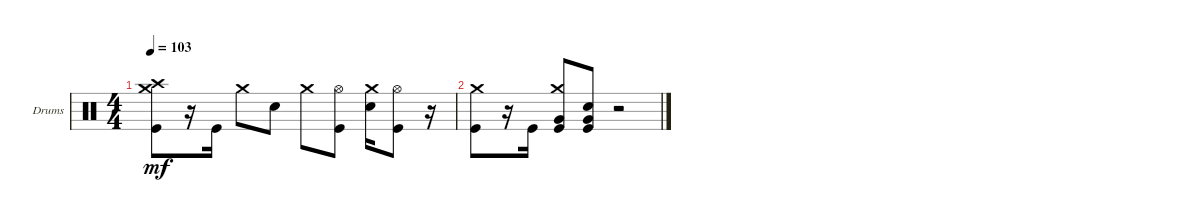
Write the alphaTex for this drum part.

\bracketExtendMode groupsimilarinstruments
\firstSystemTrackNameOrientation horizontal
\otherSystemsTrackNameOrientation horizontal
\track ("Drums" "Drums") {instrument percussion}
\staff {score}
\articulation defaults
\ts (4 4)
\tempo 103
\clef neutral
\ks c
("Crash high (hit)" "Kick (hit)" "Crash medium (hit)").8{dy mf} r.16 "Kick (hit)".16 "Crash medium (hit)".8 "Snare (hit) 2".8 "Crash medium (hit)".8 ("Hi-Hat (open)" "Kick (hit)").8 ("Snare (hit) 2" "Crash medium (hit)").16 ("Hi-Hat (open)" "Kick (hit)").8 r.16 |
("Kick (hit)" "Crash medium (hit)").8 r.16 "Kick (hit)".16 ("Very Low Tom (hit)" "Kick (hit)" "Crash medium (hit)").8 ("Very Low Tom (hit)" "Snare (hit) 2" "Kick (hit)").8 r.2
